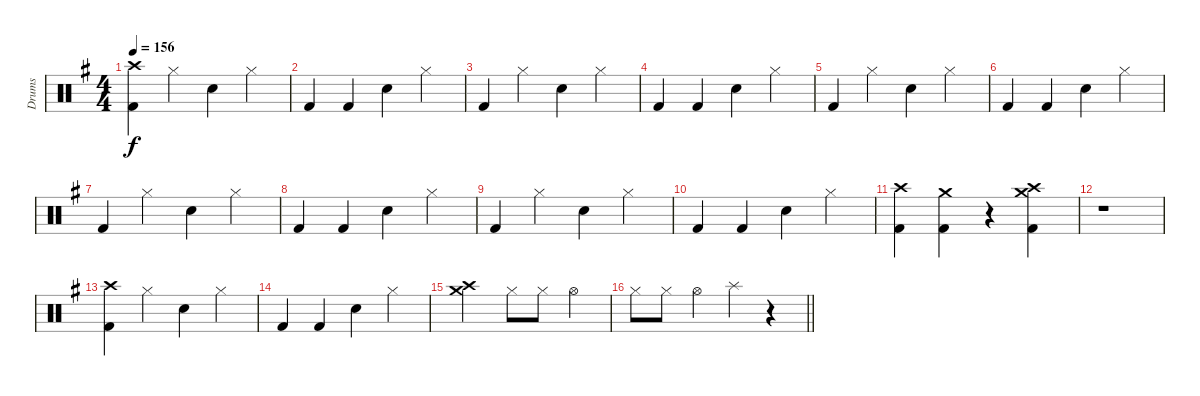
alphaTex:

\track ("Drums" "Drums") {instrument percussion}
\staff {score}
\articulation defaults
\ts (4 4)
\tempo 156
\clef neutral
\ks g
("Crash high (hit)" "Kick (hit) 2").4{dy f} "Hi-Hat (closed)".4 "Snare (hit) 2".4 "Hi-Hat (closed)".4 |
"Kick (hit) 2".4 "Kick (hit) 2".4 "Snare (hit) 2".4 "Hi-Hat (closed)".4 |
"Kick (hit) 2".4 "Hi-Hat (closed)".4 "Snare (hit) 2".4 "Hi-Hat (closed)".4 |
"Kick (hit) 2".4 "Kick (hit) 2".4 "Snare (hit) 2".4 "Hi-Hat (closed)".4 |
"Kick (hit) 2".4 "Hi-Hat (closed)".4 "Snare (hit) 2".4 "Hi-Hat (closed)".4 |
"Kick (hit) 2".4 "Kick (hit) 2".4 "Snare (hit) 2".4 "Hi-Hat (closed)".4 |
"Kick (hit) 2".4 "Hi-Hat (closed)".4 "Snare (hit) 2".4 "Hi-Hat (closed)".4 |
"Kick (hit) 2".4 "Kick (hit) 2".4 "Snare (hit) 2".4 "Hi-Hat (closed)".4 |
"Kick (hit) 2".4 "Hi-Hat (closed)".4 "Snare (hit) 2".4 "Hi-Hat (closed)".4 |
"Kick (hit) 2".4 "Kick (hit) 2".4 "Snare (hit) 2".4 "Hi-Hat (closed)".4 |
("Crash high (hit)" "Kick (hit) 2").4 ("Crash medium (hit)" "Kick (hit) 2").4 r.4 ("Crash high (hit)" "Crash medium (hit)" "Kick (hit) 2").4 |
r.1 |
("Crash high (hit)" "Kick (hit) 2").4 "Hi-Hat (closed)".4 "Snare (hit) 2".4 "Hi-Hat (closed)".4 |
"Kick (hit) 2".4 "Kick (hit) 2".4 "Snare (hit) 2".4 "Hi-Hat (closed)".4 |
("Crash high (hit)" "Crash medium (hit)").2 "Hi-Hat (closed)".8 "Hi-Hat (closed)".8 "Hi-Hat (open)".4 |
\barLineRight lightlight "Hi-Hat (closed)".8 "Hi-Hat (closed)".8 "Hi-Hat (open)".4 "Splash (hit)".4
r.4
